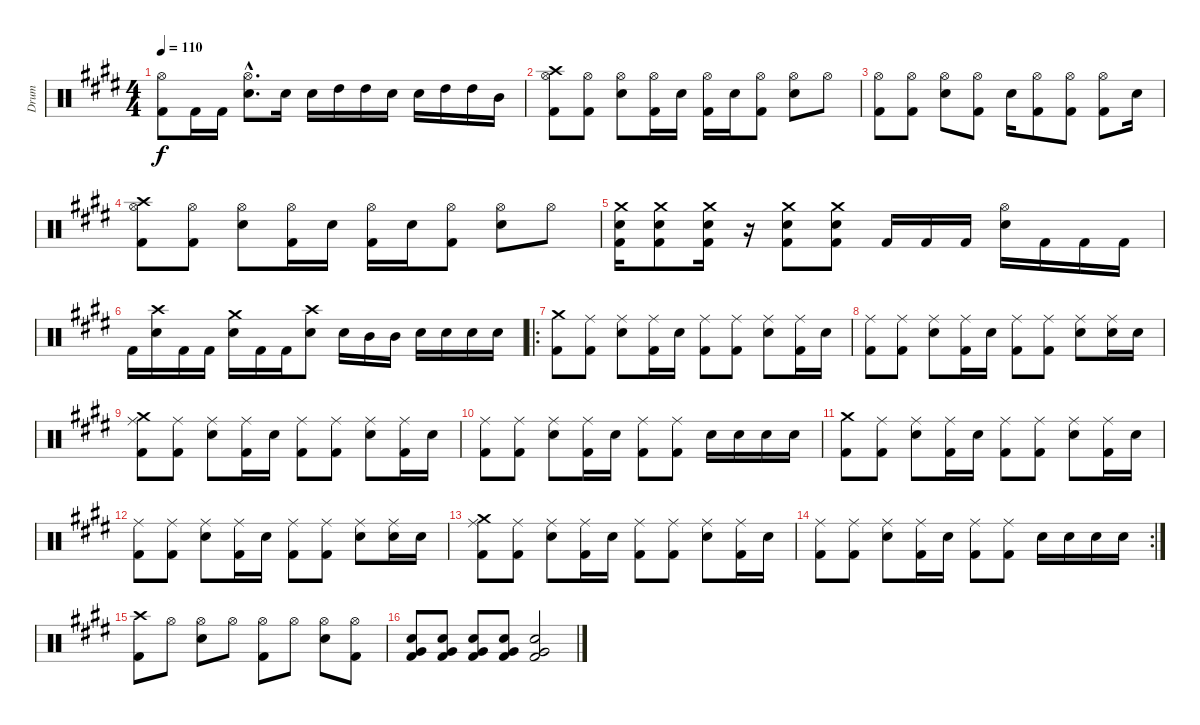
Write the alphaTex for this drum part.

\track ("Drum" "Drum") {instrument percussion}
\staff {score}
\articulation defaults
\ts (4 4)
\tempo 110
\clef neutral
\ks c#minor
("Hi-Hat (open)" "Kick (hit) 2").8{dy f} "Kick (hit) 2".16 "Kick (hit) 2".16 ("Hi-Hat (open)"{hac} "Snare (hit) 2"{hac}).8{d} "Snare (hit) 2".16 "Snare (hit) 2".16 "High Tom (hit)".16 "High Tom (hit)".16 "Snare (hit) 2".16 "Snare (hit) 2".16 "High Tom (hit)".16 "High Tom (hit)".16 "Mid Tom (hit)".16 |
("Hi-Hat (open)" "Kick (hit) 2" "Crash high (hit)").8 ("Hi-Hat (open)" "Kick (hit) 2").8 ("Hi-Hat (open)" "Snare (hit) 2").8 ("Hi-Hat (open)" "Kick (hit) 2").16 "Snare (hit) 2".16 ("Hi-Hat (open)" "Kick (hit) 2").16 "Snare (hit) 2".16 ("Hi-Hat (open)" "Kick (hit) 2").8 ("Hi-Hat (open)" "Snare (hit) 2").8 "Hi-Hat (open)".8 |
("Hi-Hat (open)" "Kick (hit) 2").8 ("Hi-Hat (open)" "Kick (hit) 2").8 ("Hi-Hat (open)" "Snare (hit) 2").8 ("Hi-Hat (open)" "Kick (hit) 2").8 "Snare (hit) 2".16 ("Hi-Hat (open)" "Kick (hit) 2").8 ("Hi-Hat (open)" "Kick (hit) 2").8 ("Hi-Hat (open)" "Kick (hit) 2").8 "Snare (hit) 2".16 |
("Hi-Hat (open)" "Kick (hit) 2" "Crash high (hit)").8 ("Hi-Hat (open)" "Kick (hit) 2").8 ("Hi-Hat (open)" "Snare (hit) 2").8 ("Hi-Hat (open)" "Kick (hit) 2").16 "Snare (hit) 2".16 ("Hi-Hat (open)" "Kick (hit) 2").16 "Snare (hit) 2".16 ("Hi-Hat (open)" "Kick (hit) 2").8 ("Hi-Hat (open)" "Snare (hit) 2").8 "Hi-Hat (open)".8 |
("Crash medium (hit)" "Kick (hit) 2" "Snare (hit) 2").16 ("Crash medium (hit)" "Kick (hit) 2" "Snare (hit) 2").8 ("Crash medium (hit)" "Kick (hit) 2" "Snare (hit) 2").16 r.16 ("Crash medium (hit)" "Kick (hit) 2" "Snare (hit) 2").8 ("Crash medium (hit)" "Kick (hit) 2" "Snare (hit) 2").8 "Kick (hit) 2".16 "Kick (hit) 2".16 "Kick (hit) 2".16 ("Hi-Hat (open)" "Snare (hit) 2").16 "Kick (hit) 2".16 "Kick (hit) 2".16 "Kick (hit) 2".16 |
"Kick (hit) 2".16 ("Crash high (hit)" "Snare (hit) 2").16 "Kick (hit) 2".16 "Kick (hit) 2".16 ("Crash medium (hit)" "Snare (hit) 2").16 "Kick (hit) 2".16 "Kick (hit) 2".16 ("Crash high (hit)" "Snare (hit) 2").8 "Snare (hit) 2".16 "Mid Tom (hit)".16 "Mid Tom (hit)".16 "Snare (hit) 2".16 "Snare (hit) 2".16 "Snare (hit) 2".16 "Snare (hit) 2".16 |
\ro
("Crash medium (hit)" "Kick (hit) 2").8 ("Ride (middle)" "Kick (hit) 2").8 ("Ride (middle)" "Snare (hit) 2").8 ("Ride (middle)" "Kick (hit) 2").16 "Snare (hit) 2".16 ("Ride (middle)" "Kick (hit) 2").8 ("Ride (middle)" "Kick (hit) 2").8 ("Ride (middle)" "Snare (hit) 2").8 ("Ride (middle)" "Kick (hit) 2").16 "Snare (hit) 2".16 |
("Ride (middle)" "Kick (hit) 2").8 ("Ride (middle)" "Kick (hit) 2").8 ("Ride (middle)" "Snare (hit) 2").8 ("Ride (middle)" "Kick (hit) 2").16 "Snare (hit) 2".16 ("Ride (middle)" "Kick (hit) 2").8 ("Ride (middle)" "Kick (hit) 2").8 ("Ride (middle)" "Snare (hit) 2").8 ("Ride (middle)" "Snare (hit) 2").16 "Snare (hit) 2".16 |
("Ride (middle)" "Kick (hit) 2" "Crash medium (hit)").8 ("Ride (middle)" "Kick (hit) 2").8 ("Ride (middle)" "Snare (hit) 2").8 ("Ride (middle)" "Kick (hit) 2").16 "Snare (hit) 2".16 ("Ride (middle)" "Kick (hit) 2").8 ("Ride (middle)" "Kick (hit) 2").8 ("Ride (middle)" "Snare (hit) 2").8 ("Ride (middle)" "Kick (hit) 2").16 "Snare (hit) 2".16 |
("Ride (middle)" "Kick (hit) 2").8 ("Ride (middle)" "Kick (hit) 2").8 ("Ride (middle)" "Snare (hit) 2").8 ("Ride (middle)" "Kick (hit) 2").16 "Snare (hit) 2".16 ("Ride (middle)" "Kick (hit) 2").8 ("Ride (middle)" "Kick (hit) 2").8 "Snare (hit) 2".16 "Snare (hit) 2".16 "Snare (hit) 2".16 "Snare (hit) 2".16 |
("Crash medium (hit)" "Kick (hit) 2").8 ("Ride (middle)" "Kick (hit) 2").8 ("Ride (middle)" "Snare (hit) 2").8 ("Ride (middle)" "Kick (hit) 2").16 "Snare (hit) 2".16 ("Ride (middle)" "Kick (hit) 2").8 ("Ride (middle)" "Kick (hit) 2").8 ("Ride (middle)" "Snare (hit) 2").8 ("Ride (middle)" "Kick (hit) 2").16 "Snare (hit) 2".16 |
("Ride (middle)" "Kick (hit) 2").8 ("Ride (middle)" "Kick (hit) 2").8 ("Ride (middle)" "Snare (hit) 2").8 ("Ride (middle)" "Kick (hit) 2").16 "Snare (hit) 2".16 ("Ride (middle)" "Kick (hit) 2").8 ("Ride (middle)" "Kick (hit) 2").8 ("Ride (middle)" "Snare (hit) 2").8 ("Ride (middle)" "Snare (hit) 2").16 "Snare (hit) 2".16 |
("Ride (middle)" "Kick (hit) 2" "Crash medium (hit)").8 ("Ride (middle)" "Kick (hit) 2").8 ("Ride (middle)" "Snare (hit) 2").8 ("Ride (middle)" "Kick (hit) 2").16 "Snare (hit) 2".16 ("Ride (middle)" "Kick (hit) 2").8 ("Ride (middle)" "Kick (hit) 2").8 ("Ride (middle)" "Snare (hit) 2").8 ("Ride (middle)" "Kick (hit) 2").16 "Snare (hit) 2".16 |
\rc 2
("Ride (middle)" "Kick (hit) 2").8 ("Ride (middle)" "Kick (hit) 2").8 ("Ride (middle)" "Snare (hit) 2").8 ("Ride (middle)" "Kick (hit) 2").16 "Snare (hit) 2".16 ("Ride (middle)" "Kick (hit) 2").8 ("Ride (middle)" "Kick (hit) 2").8 "Snare (hit) 2".16 "Snare (hit) 2".16 "Snare (hit) 2".16 "Snare (hit) 2".16 |
("Crash high (hit)" "Kick (hit) 2").8 "Hi-Hat (open)".8 ("Hi-Hat (open)" "Snare (hit) 2").8 "Hi-Hat (open)".8 ("Hi-Hat (open)" "Kick (hit) 2").8 "Hi-Hat (open)".8 ("Hi-Hat (open)" "Snare (hit) 2").8 ("Hi-Hat (open)" "Kick (hit) 2").8 |
("Snare (hit) 2" "Kick (hit) 2" "Very Low Tom (hit)").8 ("Snare (hit) 2" "Kick (hit) 2" "Very Low Tom (hit)").8 ("Snare (hit) 2" "Kick (hit) 2" "Very Low Tom (hit)").8 ("Snare (hit) 2" "Kick (hit) 2" "Very Low Tom (hit)").8 ("Snare (hit) 2" "Kick (hit) 2" "Very Low Tom (hit)").2
